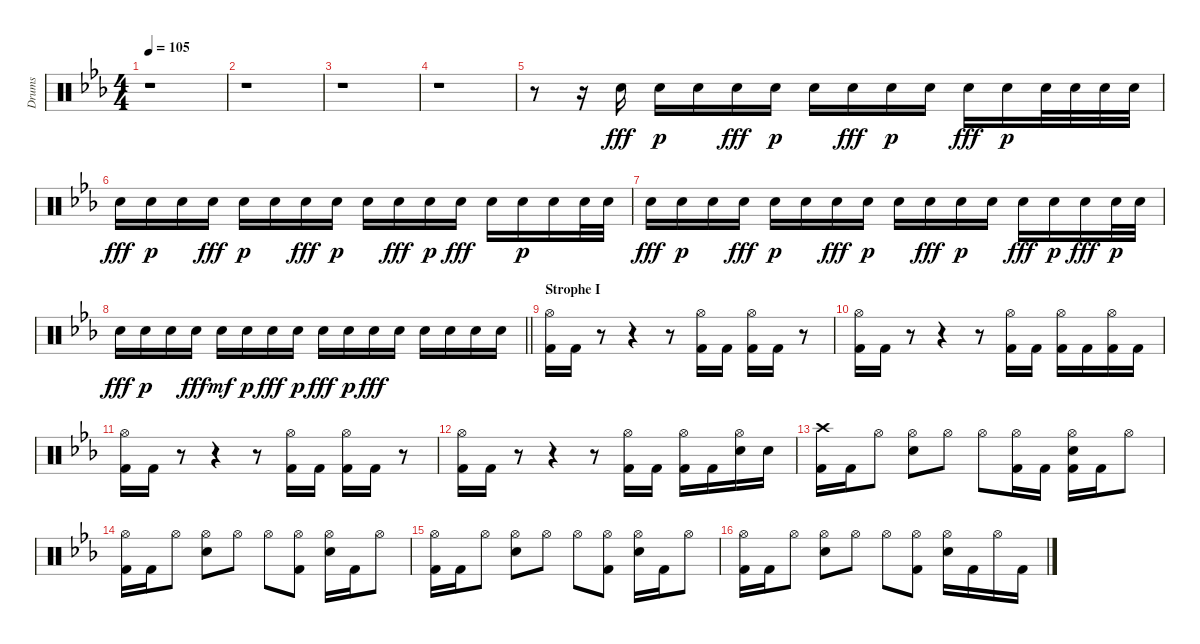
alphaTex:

\track ("Drums" "Drums") {instrument percussion}
\staff {score}
\articulation defaults
\ts (4 4)
\tempo 105
\clef neutral
\ks eb
r.1{dy fff} |
r.1 |
r.1 |
r.1 |
r.8 r.16 "Electric Snare (hit)".16 "Electric Snare (hit)".16{dy p} "Electric Snare (hit)".16 "Electric Snare (hit)".16{dy fff} "Electric Snare (hit)".16{dy p} "Electric Snare (hit)".16 "Electric Snare (hit)".16{dy fff} "Electric Snare (hit)".16{dy p} "Electric Snare (hit)".16 "Electric Snare (hit)".16{dy fff} "Electric Snare (hit)".16{dy p} "Electric Snare (hit)".32 "Electric Snare (hit)".32 "Electric Snare (hit)".32 "Electric Snare (hit)".32 |
"Electric Snare (hit)".16{dy fff} "Electric Snare (hit)".16{dy p} "Electric Snare (hit)".16 "Electric Snare (hit)".16{dy fff} "Electric Snare (hit)".16{dy p} "Electric Snare (hit)".16 "Electric Snare (hit)".16{dy fff} "Electric Snare (hit)".16{dy p} "Electric Snare (hit)".16 "Electric Snare (hit)".16{dy fff} "Electric Snare (hit)".16{dy p} "Electric Snare (hit)".16{dy fff} "Electric Snare (hit)".16 "Electric Snare (hit)".16{dy p} "Electric Snare (hit)".16 "Electric Snare (hit)".32 "Electric Snare (hit)".32 |
"Electric Snare (hit)".16{dy fff} "Electric Snare (hit)".16{dy p} "Electric Snare (hit)".16 "Electric Snare (hit)".16{dy fff} "Electric Snare (hit)".16{dy p} "Electric Snare (hit)".16 "Electric Snare (hit)".16{dy fff} "Electric Snare (hit)".16{dy p} "Electric Snare (hit)".16 "Electric Snare (hit)".16{dy fff} "Electric Snare (hit)".16{dy p} "Electric Snare (hit)".16 "Electric Snare (hit)".16{dy fff} "Electric Snare (hit)".16{dy p} "Electric Snare (hit)".16{dy fff} "Electric Snare (hit)".32{dy p} "Electric Snare (hit)".32 |
\barLineRight lightlight "Electric Snare (hit)".16{dy fff} "Electric Snare (hit)".16{dy p} "Electric Snare (hit)".16 "Electric Snare (hit)".16{dy fff} "Electric Snare (hit)".16{dy mf} "Electric Snare (hit)".16{dy p} "Electric Snare (hit)".16{dy fff} "Electric Snare (hit)".16{dy p} "Electric Snare (hit)".16{dy fff} "Electric Snare (hit)".16{dy p} "Electric Snare (hit)".16{dy fff} "Electric Snare (hit)".16 "Electric Snare (hit)".16 "Electric Snare (hit)".16 "Electric Snare (hit)".16 "Electric Snare (hit)".16
|
\section ("" "Strophe I")
("Hi-Hat (open)" "Kick (hit) 2").16 "Kick (hit) 2".16 r.8 r.4 r.8 ("Hi-Hat (open)" "Kick (hit) 2").16 "Kick (hit) 2".16 ("Hi-Hat (open)" "Kick (hit) 2").16 "Kick (hit) 2".16 r.8 |
("Hi-Hat (open)" "Kick (hit) 2").16 "Kick (hit) 2".16 r.8 r.4 r.8 ("Hi-Hat (open)" "Kick (hit) 2").16 "Kick (hit) 2".16 ("Hi-Hat (open)" "Kick (hit) 2").16 "Kick (hit) 2".16 ("Hi-Hat (open)" "Kick (hit) 2").16 "Kick (hit) 2".16 |
("Hi-Hat (open)" "Kick (hit) 2").16 "Kick (hit) 2".16 r.8 r.4 r.8 ("Hi-Hat (open)" "Kick (hit) 2").16 "Kick (hit) 2".16 ("Hi-Hat (open)" "Kick (hit) 2").16 "Kick (hit) 2".16 r.8 |
("Hi-Hat (open)" "Kick (hit) 2").16 "Kick (hit) 2".16 r.8 r.4 r.8 ("Hi-Hat (open)" "Kick (hit) 2").16 "Kick (hit) 2".16 ("Hi-Hat (open)" "Kick (hit) 2").16 "Kick (hit) 2".16 ("Hi-Hat (open)" "Snare (hit) 2").16 "Snare (hit) 2".16 |
("Crash high (hit)" "Kick (hit) 2").16 "Kick (hit) 2".16 "Hi-Hat (open)".8 ("Hi-Hat (open)" "Snare (hit) 2").8 "Hi-Hat (open)".8 "Hi-Hat (open)".8 ("Hi-Hat (open)" "Kick (hit) 2").16 "Kick (hit) 2".16 ("Hi-Hat (open)" "Snare (hit) 2" "Kick (hit) 2").16 "Kick (hit) 2".16 "Hi-Hat (open)".8 |
("Hi-Hat (open)" "Kick (hit) 2").16 "Kick (hit) 2".16 "Hi-Hat (open)".8 ("Hi-Hat (open)" "Snare (hit) 2").8 "Hi-Hat (open)".8 "Hi-Hat (open)".8 ("Hi-Hat (open)" "Kick (hit) 2").8 ("Hi-Hat (open)" "Snare (hit) 2").16 "Kick (hit) 2".16 "Hi-Hat (open)".8 |
("Hi-Hat (open)" "Kick (hit) 2").16 "Kick (hit) 2".16 "Hi-Hat (open)".8 ("Hi-Hat (open)" "Snare (hit) 2").8 "Hi-Hat (open)".8 "Hi-Hat (open)".8 ("Hi-Hat (open)" "Kick (hit) 2").8 ("Hi-Hat (open)" "Snare (hit) 2").16 "Kick (hit) 2".16 "Hi-Hat (open)".8 |
("Hi-Hat (open)" "Kick (hit) 2").16 "Kick (hit) 2".16 "Hi-Hat (open)".8 ("Hi-Hat (open)" "Snare (hit) 2").8 "Hi-Hat (open)".8 "Hi-Hat (open)".8 ("Hi-Hat (open)" "Kick (hit) 2").8 ("Hi-Hat (open)" "Snare (hit) 2").16 "Kick (hit) 2".16 "Hi-Hat (open)".16 "Kick (hit) 2".16
